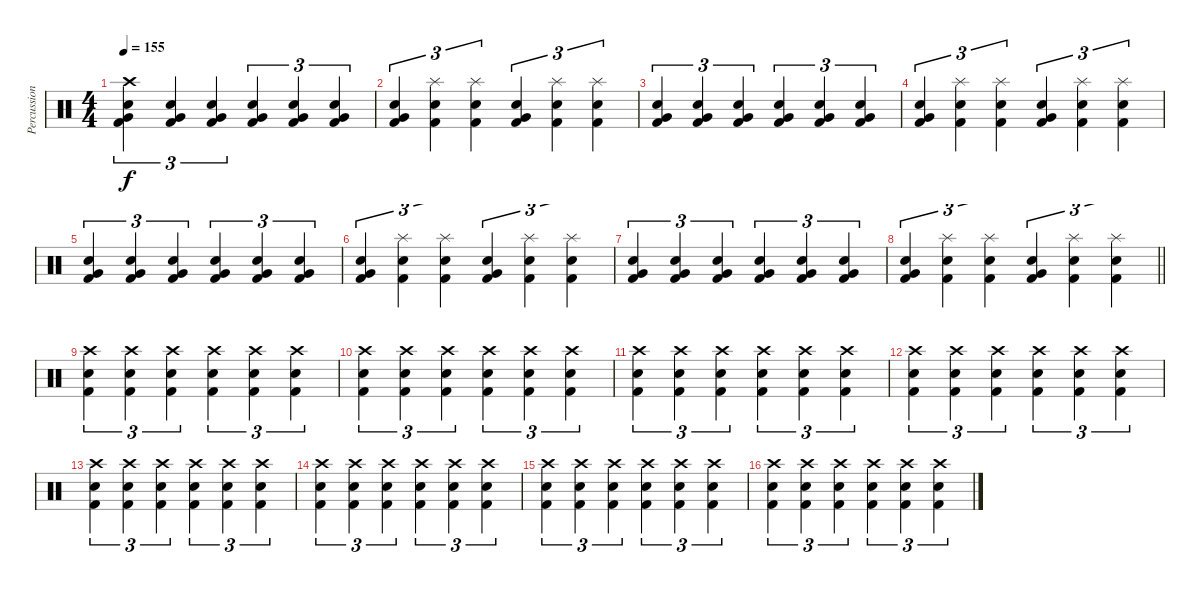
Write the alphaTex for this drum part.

\track ("Percussion" "Percussion") {instrument percussion}
\staff {score}
\articulation defaults
\ts (4 4)
\tempo 155
\clef neutral
\ks c
("Crash high (hit)" "Electric Snare (hit)" "Very Low Tom (hit)" "Kick (hit) 2").4{tu (3 2) dy f} ("Electric Snare (hit)" "Very Low Tom (hit)" "Kick (hit) 2").4{tu (3 2)} ("Electric Snare (hit)" "Very Low Tom (hit)" "Kick (hit) 2").4{tu (3 2)} ("Electric Snare (hit)" "Very Low Tom (hit)" "Kick (hit) 2").4{tu (3 2)} ("Electric Snare (hit)" "Very Low Tom (hit)" "Kick (hit) 2").4{tu (3 2)} ("Electric Snare (hit)" "Very Low Tom (hit)" "Kick (hit) 2").4{tu (3 2)} |
("Electric Snare (hit)" "Very Low Tom (hit)" "Kick (hit) 2").4{tu (3 2)} ("Splash (hit)" "Electric Snare (hit)" "Kick (hit) 2").4{tu (3 2)} ("Splash (hit)" "Electric Snare (hit)" "Kick (hit) 2").4{tu (3 2)} ("Electric Snare (hit)" "Very Low Tom (hit)" "Kick (hit) 2").4{tu (3 2)} ("Splash (hit)" "Electric Snare (hit)" "Kick (hit) 2").4{tu (3 2)} ("Splash (hit)" "Electric Snare (hit)" "Kick (hit) 2").4{tu (3 2)} |
("Electric Snare (hit)" "Very Low Tom (hit)" "Kick (hit) 2").4{tu (3 2)} ("Electric Snare (hit)" "Very Low Tom (hit)" "Kick (hit) 2").4{tu (3 2)} ("Electric Snare (hit)" "Very Low Tom (hit)" "Kick (hit) 2").4{tu (3 2)} ("Electric Snare (hit)" "Very Low Tom (hit)" "Kick (hit) 2").4{tu (3 2)} ("Electric Snare (hit)" "Very Low Tom (hit)" "Kick (hit) 2").4{tu (3 2)} ("Electric Snare (hit)" "Very Low Tom (hit)" "Kick (hit) 2").4{tu (3 2)} |
("Electric Snare (hit)" "Very Low Tom (hit)" "Kick (hit) 2").4{tu (3 2)} ("Splash (hit)" "Electric Snare (hit)" "Kick (hit) 2").4{tu (3 2)} ("Splash (hit)" "Electric Snare (hit)" "Kick (hit) 2").4{tu (3 2)} ("Electric Snare (hit)" "Very Low Tom (hit)" "Kick (hit) 2").4{tu (3 2)} ("Splash (hit)" "Electric Snare (hit)" "Kick (hit) 2").4{tu (3 2)} ("Splash (hit)" "Electric Snare (hit)" "Kick (hit) 2").4{tu (3 2)} |
("Electric Snare (hit)" "Very Low Tom (hit)" "Kick (hit) 2").4{tu (3 2)} ("Electric Snare (hit)" "Very Low Tom (hit)" "Kick (hit) 2").4{tu (3 2)} ("Electric Snare (hit)" "Very Low Tom (hit)" "Kick (hit) 2").4{tu (3 2)} ("Electric Snare (hit)" "Very Low Tom (hit)" "Kick (hit) 2").4{tu (3 2)} ("Electric Snare (hit)" "Very Low Tom (hit)" "Kick (hit) 2").4{tu (3 2)} ("Electric Snare (hit)" "Very Low Tom (hit)" "Kick (hit) 2").4{tu (3 2)} |
("Electric Snare (hit)" "Very Low Tom (hit)" "Kick (hit) 2").4{tu (3 2)} ("Splash (hit)" "Electric Snare (hit)" "Kick (hit) 2").4{tu (3 2)} ("Splash (hit)" "Electric Snare (hit)" "Kick (hit) 2").4{tu (3 2)} ("Electric Snare (hit)" "Very Low Tom (hit)" "Kick (hit) 2").4{tu (3 2)} ("Splash (hit)" "Electric Snare (hit)" "Kick (hit) 2").4{tu (3 2)} ("Splash (hit)" "Electric Snare (hit)" "Kick (hit) 2").4{tu (3 2)} |
("Electric Snare (hit)" "Very Low Tom (hit)" "Kick (hit) 2").4{tu (3 2)} ("Electric Snare (hit)" "Very Low Tom (hit)" "Kick (hit) 2").4{tu (3 2)} ("Electric Snare (hit)" "Very Low Tom (hit)" "Kick (hit) 2").4{tu (3 2)} ("Electric Snare (hit)" "Very Low Tom (hit)" "Kick (hit) 2").4{tu (3 2)} ("Electric Snare (hit)" "Very Low Tom (hit)" "Kick (hit) 2").4{tu (3 2)} ("Electric Snare (hit)" "Very Low Tom (hit)" "Kick (hit) 2").4{tu (3 2)} |
\barLineRight lightlight
("Electric Snare (hit)" "Very Low Tom (hit)" "Kick (hit) 2").4{tu (3 2)} ("Splash (hit)" "Electric Snare (hit)" "Kick (hit) 2").4{tu (3 2)} ("Splash (hit)" "Electric Snare (hit)" "Kick (hit) 2").4{tu (3 2)} ("Electric Snare (hit)" "Very Low Tom (hit)" "Kick (hit) 2").4{tu (3 2)} ("Splash (hit)" "Electric Snare (hit)" "Kick (hit) 2").4{tu (3 2)} ("Splash (hit)" "Electric Snare (hit)" "Kick (hit) 2").4{tu (3 2)} |
("Crash high (hit)" "Electric Snare (hit)" "Kick (hit) 2").4{tu (3 2)} ("Crash high (hit)" "Electric Snare (hit)" "Kick (hit) 2").4{tu (3 2)} ("Crash high (hit)" "Electric Snare (hit)" "Kick (hit) 2").4{tu (3 2)} ("Crash high (hit)" "Electric Snare (hit)" "Kick (hit) 2").4{tu (3 2)} ("Crash high (hit)" "Electric Snare (hit)" "Kick (hit) 2").4{tu (3 2)} ("Crash high (hit)" "Electric Snare (hit)" "Kick (hit) 2").4{tu (3 2)} |
("Crash high (hit)" "Electric Snare (hit)" "Kick (hit) 2").4{tu (3 2)} ("Crash high (hit)" "Electric Snare (hit)" "Kick (hit) 2").4{tu (3 2)} ("Crash high (hit)" "Electric Snare (hit)" "Kick (hit) 2").4{tu (3 2)} ("Crash high (hit)" "Electric Snare (hit)" "Kick (hit) 2").4{tu (3 2)} ("Crash high (hit)" "Electric Snare (hit)" "Kick (hit) 2").4{tu (3 2)} ("Crash high (hit)" "Electric Snare (hit)" "Kick (hit) 2").4{tu (3 2)} |
("Crash high (hit)" "Electric Snare (hit)" "Kick (hit) 2").4{tu (3 2)} ("Crash high (hit)" "Electric Snare (hit)" "Kick (hit) 2").4{tu (3 2)} ("Crash high (hit)" "Electric Snare (hit)" "Kick (hit) 2").4{tu (3 2)} ("Crash high (hit)" "Electric Snare (hit)" "Kick (hit) 2").4{tu (3 2)} ("Crash high (hit)" "Electric Snare (hit)" "Kick (hit) 2").4{tu (3 2)} ("Crash high (hit)" "Electric Snare (hit)" "Kick (hit) 2").4{tu (3 2)} |
("Crash high (hit)" "Electric Snare (hit)" "Kick (hit) 2").4{tu (3 2)} ("Crash high (hit)" "Electric Snare (hit)" "Kick (hit) 2").4{tu (3 2)} ("Crash high (hit)" "Electric Snare (hit)" "Kick (hit) 2").4{tu (3 2)} ("Crash high (hit)" "Electric Snare (hit)" "Kick (hit) 2").4{tu (3 2)} ("Crash high (hit)" "Electric Snare (hit)" "Kick (hit) 2").4{tu (3 2)} ("Crash high (hit)" "Electric Snare (hit)" "Kick (hit) 2").4{tu (3 2)} |
("Crash high (hit)" "Electric Snare (hit)" "Kick (hit) 2").4{tu (3 2)} ("Crash high (hit)" "Electric Snare (hit)" "Kick (hit) 2").4{tu (3 2)} ("Crash high (hit)" "Electric Snare (hit)" "Kick (hit) 2").4{tu (3 2)} ("Crash high (hit)" "Electric Snare (hit)" "Kick (hit) 2").4{tu (3 2)} ("Crash high (hit)" "Electric Snare (hit)" "Kick (hit) 2").4{tu (3 2)} ("Crash high (hit)" "Electric Snare (hit)" "Kick (hit) 2").4{tu (3 2)} |
("Crash high (hit)" "Electric Snare (hit)" "Kick (hit) 2").4{tu (3 2)} ("Crash high (hit)" "Electric Snare (hit)" "Kick (hit) 2").4{tu (3 2)} ("Crash high (hit)" "Electric Snare (hit)" "Kick (hit) 2").4{tu (3 2)} ("Crash high (hit)" "Electric Snare (hit)" "Kick (hit) 2").4{tu (3 2)} ("Crash high (hit)" "Electric Snare (hit)" "Kick (hit) 2").4{tu (3 2)} ("Crash high (hit)" "Electric Snare (hit)" "Kick (hit) 2").4{tu (3 2)} |
("Crash high (hit)" "Electric Snare (hit)" "Kick (hit) 2").4{tu (3 2)} ("Crash high (hit)" "Electric Snare (hit)" "Kick (hit) 2").4{tu (3 2)} ("Crash high (hit)" "Electric Snare (hit)" "Kick (hit) 2").4{tu (3 2)} ("Crash high (hit)" "Electric Snare (hit)" "Kick (hit) 2").4{tu (3 2)} ("Crash high (hit)" "Electric Snare (hit)" "Kick (hit) 2").4{tu (3 2)} ("Crash high (hit)" "Electric Snare (hit)" "Kick (hit) 2").4{tu (3 2)} |
("Crash high (hit)" "Electric Snare (hit)" "Kick (hit) 2").4{tu (3 2)} ("Crash high (hit)" "Electric Snare (hit)" "Kick (hit) 2").4{tu (3 2)} ("Crash high (hit)" "Electric Snare (hit)" "Kick (hit) 2").4{tu (3 2)} ("Crash high (hit)" "Electric Snare (hit)" "Kick (hit) 2").4{tu (3 2)} ("Crash high (hit)" "Electric Snare (hit)" "Kick (hit) 2").4{tu (3 2)} ("Crash high (hit)" "Electric Snare (hit)" "Kick (hit) 2").4{tu (3 2)}
